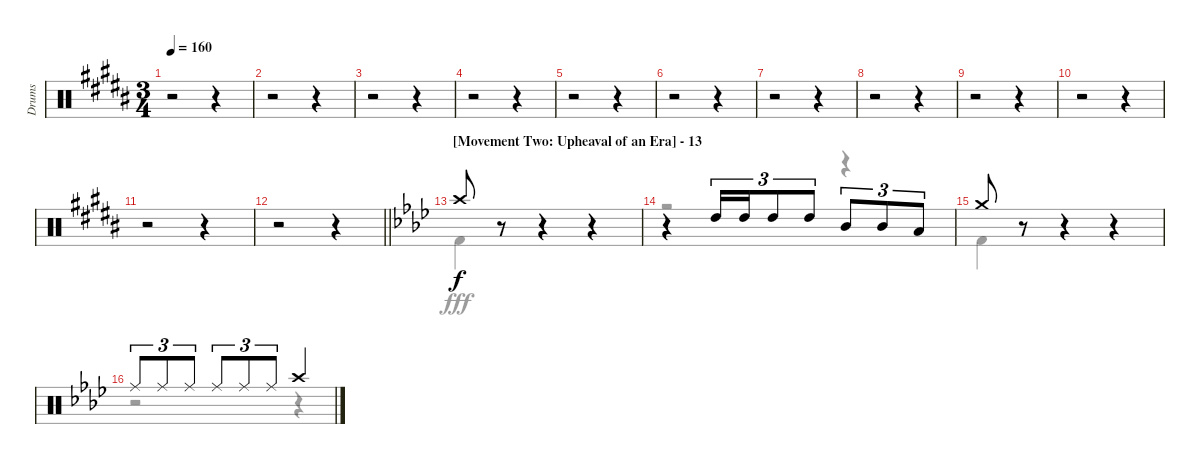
\track ("Drums" "Drums") {instrument percussion}
\staff {score}
\articulation defaults
\voice
\ts (3 4)
\tempo 160
\clef neutral
\ks b
r.2{dy f} r.4 |
r.2 r.4 |
r.2 r.4 |
r.2 r.4 |
r.2 r.4 |
r.2 r.4 |
r.2 r.4 |
r.2 r.4 |
r.2 r.4 |
r.2 r.4 |
r.2 r.4 |
\barLineRight lightlight
r.2 r.4 |
\section ("" "[Movement Two: Upheaval of an Era] - 13")
\ks ab "Crash high (hit)".8
r.8 r.4 r.4 |
r.4 "High Tom (hit)".16{tu (3 2)} "High Tom (hit)".16{tu (3 2)} "High Tom (hit)".8{tu (3 2)} "High Tom (hit)".8{tu (3 2)} "Mid Tom (hit)".8{tu (3 2)} "Mid Tom (hit)".8{tu (3 2)} "Low Tom (hit)".8{tu (3 2)} |
"Crash medium (hit)".8 r.8 r.4 r.4 |
"Ride (middle)".8{tu (3 2)} "Ride (middle)".8{tu (3 2)} "Ride (middle)".8{tu (3 2)} "Ride (middle)".8{tu (3 2)} "Ride (middle)".8{tu (3 2)} "Ride (middle)".8{tu (3 2)} "Crash high (hit)".4
\voice
\clef neutral
\ottava regular
\simile none
\ks b
r.2{dy fff} r.4 |
r.2 r.4 |
r.2 r.4 |
r.2 r.4 |
r.2 r.4 |
r.2 r.4 |
r.2 r.4 |
r.2 r.4 |
r.2 r.4 |
r.2 r.4 |
r.2 r.4 |
\barLineRight lightlight
r.2 r.4 |
\ks ab "Kick (hit) 2".4
r.4 r.4 |
r.2 r.4 |
"Kick (hit) 2".4 r.4 r.4 |
r.2 r.4
